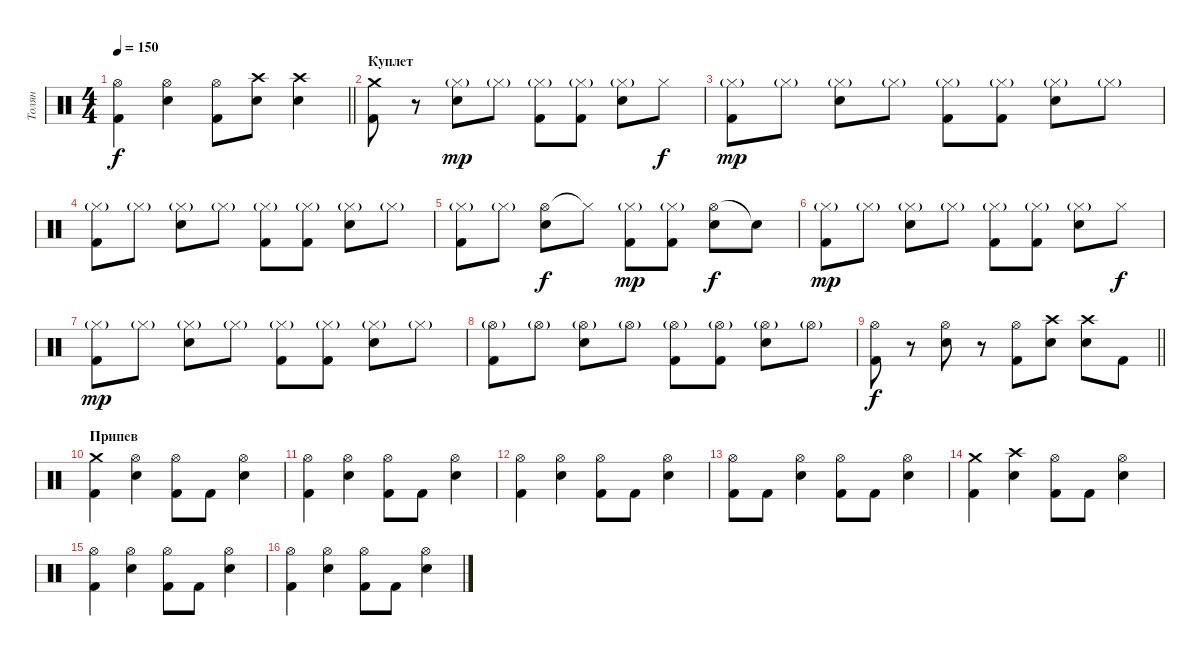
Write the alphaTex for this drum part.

\track ("Толян" "Толян") {instrument percussion}
\staff {score}
\articulation defaults
\ts (4 4)
\tempo 150
\clef neutral
\barLineRight lightlight
\ks c
("Kick (hit) 2" "Hi-Hat (open)").4{dy f} ("Electric Snare (hit)" "Hi-Hat (open)").4 ("Kick (hit) 2" "Hi-Hat (open)").8 ("Electric Snare (hit)" "Crash high (hit)").8 ("Electric Snare (hit)" "Crash high (hit)").4 |
\section ("" "Куплет")
("Crash medium (hit)" "Kick (hit) 2").8 r.8 ("Hi-Hat (closed)"{g} "Electric Snare (hit)").8{dy mp} "Hi-Hat (closed)"{g}.8 ("Hi-Hat (closed)"{g} "Kick (hit) 2").8 ("Hi-Hat (closed)"{g} "Kick (hit) 2").8 ("Hi-Hat (closed)"{g} "Electric Snare (hit)").8 "Hi-Hat (closed)".8{dy f} |
("Hi-Hat (closed)"{g} "Kick (hit) 2").8{dy mp} "Hi-Hat (closed)"{g}.8 ("Hi-Hat (closed)"{g} "Electric Snare (hit)").8 "Hi-Hat (closed)"{g}.8 ("Hi-Hat (closed)"{g} "Kick (hit) 2").8 ("Hi-Hat (closed)"{g} "Kick (hit) 2").8 ("Hi-Hat (closed)"{g} "Electric Snare (hit)").8 "Hi-Hat (closed)"{g}.8 |
("Hi-Hat (closed)"{g} "Kick (hit) 2").8 "Hi-Hat (closed)"{g}.8 ("Hi-Hat (closed)"{g} "Electric Snare (hit)").8 "Hi-Hat (closed)"{g}.8 ("Hi-Hat (closed)"{g} "Kick (hit) 2").8 ("Hi-Hat (closed)"{g} "Kick (hit) 2").8 ("Hi-Hat (closed)"{g} "Electric Snare (hit)").8 "Hi-Hat (closed)"{g}.8 |
("Hi-Hat (closed)"{g} "Kick (hit) 2").8 "Hi-Hat (closed)"{g}.8 ("Hi-Hat (open)" "Electric Snare (hit)").8{dy f} "Hi-Hat (closed)"{t}.8 ("Hi-Hat (closed)"{g} "Kick (hit) 2").8{dy mp} ("Hi-Hat (closed)"{g} "Kick (hit) 2").8 ("Hi-Hat (open)" "Electric Snare (hit)").8{dy f} "Snare (hit)"{t}.8 |
("Hi-Hat (closed)"{g} "Kick (hit) 2").8{dy mp} "Hi-Hat (closed)"{g}.8 ("Hi-Hat (closed)"{g} "Electric Snare (hit)").8 "Hi-Hat (closed)"{g}.8 ("Hi-Hat (closed)"{g} "Kick (hit) 2").8 ("Hi-Hat (closed)"{g} "Kick (hit) 2").8 ("Hi-Hat (closed)"{g} "Electric Snare (hit)").8 "Hi-Hat (closed)".8{dy f} |
("Hi-Hat (closed)"{g} "Kick (hit) 2").8{dy mp} "Hi-Hat (closed)"{g}.8 ("Hi-Hat (closed)"{g} "Electric Snare (hit)").8 "Hi-Hat (closed)"{g}.8 ("Hi-Hat (closed)"{g} "Kick (hit) 2").8 ("Hi-Hat (closed)"{g} "Kick (hit) 2").8 ("Hi-Hat (closed)"{g} "Electric Snare (hit)").8 "Hi-Hat (closed)"{g}.8 |
("Hi-Hat (open)"{g} "Kick (hit) 2").8 "Hi-Hat (open)"{g}.8 ("Hi-Hat (open)"{g} "Electric Snare (hit)").8 "Hi-Hat (open)"{g}.8 ("Hi-Hat (open)"{g} "Kick (hit) 2").8 ("Hi-Hat (open)"{g} "Kick (hit) 2").8 ("Hi-Hat (open)"{g} "Electric Snare (hit)").8 "Hi-Hat (open)"{g}.8 |
\barLineRight lightlight
("Hi-Hat (open)" "Kick (hit) 2").8{dy f} r.8 ("Hi-Hat (open)" "Electric Snare (hit)").8 r.8 ("Hi-Hat (open)" "Kick (hit) 2").8 ("Electric Snare (hit)" "Crash high (hit)").8 ("Electric Snare (hit)" "Crash high (hit)").8 "Kick (hit) 2".8 |
\section ("" "Припев")
("Kick (hit) 2" "Crash medium (hit)").4 ("Electric Snare (hit)" "Hi-Hat (open)").4 ("Kick (hit) 2" "Hi-Hat (open)").8 "Kick (hit) 2".8 ("Electric Snare (hit)" "Hi-Hat (open)").4 |
("Kick (hit) 2" "Hi-Hat (open)").4 ("Electric Snare (hit)" "Hi-Hat (open)").4 ("Kick (hit) 2" "Hi-Hat (open)").8 "Kick (hit) 2".8 ("Electric Snare (hit)" "Hi-Hat (open)").4 |
("Kick (hit) 2" "Hi-Hat (open)").4 ("Electric Snare (hit)" "Hi-Hat (open)").4 ("Kick (hit) 2" "Hi-Hat (open)").8 "Kick (hit) 2".8 ("Electric Snare (hit)" "Hi-Hat (open)").4 |
("Kick (hit) 2" "Hi-Hat (open)").8 "Kick (hit) 2".8 ("Electric Snare (hit)" "Hi-Hat (open)").4 ("Kick (hit) 2" "Hi-Hat (open)").8 "Kick (hit) 2".8 ("Electric Snare (hit)" "Hi-Hat (open)").4 |
("Kick (hit) 2" "Crash medium (hit)").4 ("Electric Snare (hit)" "Crash high (hit)").4 ("Kick (hit) 2" "Hi-Hat (open)").8 "Kick (hit) 2".8 ("Electric Snare (hit)" "Hi-Hat (open)").4 |
("Kick (hit) 2" "Hi-Hat (open)").4 ("Electric Snare (hit)" "Hi-Hat (open)").4 ("Kick (hit) 2" "Hi-Hat (open)").8 "Kick (hit) 2".8 ("Electric Snare (hit)" "Hi-Hat (open)").4 |
("Kick (hit) 2" "Hi-Hat (open)").4 ("Electric Snare (hit)" "Hi-Hat (open)").4 ("Kick (hit) 2" "Hi-Hat (open)").8 "Kick (hit) 2".8 ("Electric Snare (hit)" "Hi-Hat (open)").4
